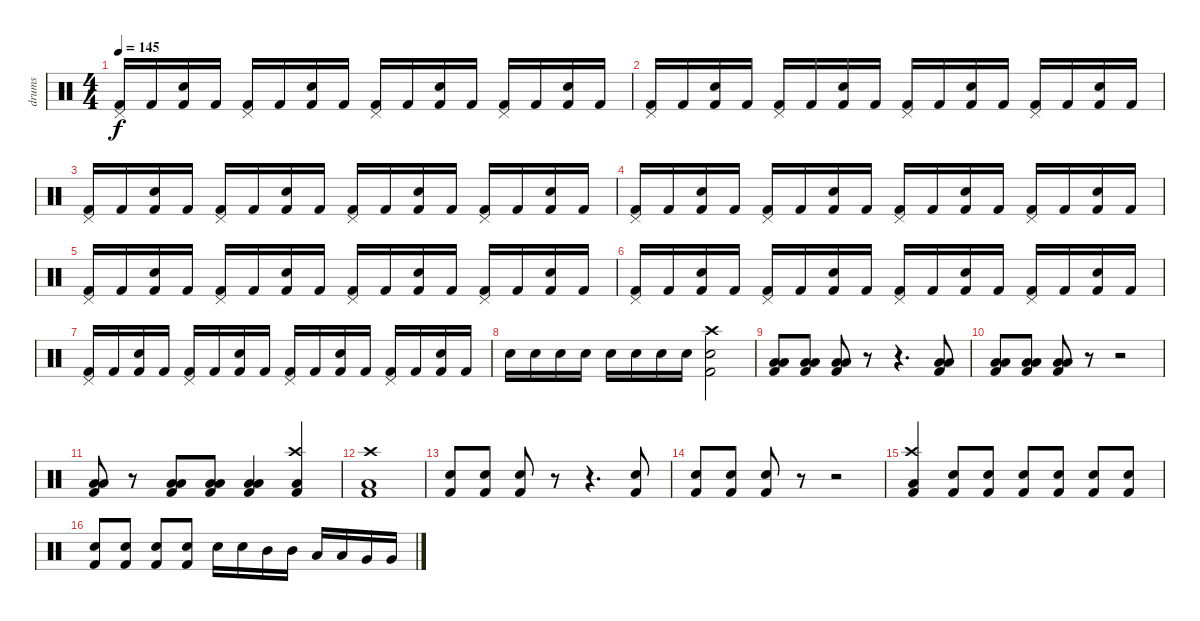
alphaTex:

\track ("drums" "drums") {instrument percussion}
\staff {score}
\articulation defaults
\ts (4 4)
\tempo 145
\clef neutral
\ks c
("Pedal Hi-Hat (hit)" "Kick (hit) 2").16{dy f} "Kick (hit) 2".16 ("Electric Snare (hit)" "Kick (hit) 2").16 "Kick (hit) 2".16 ("Pedal Hi-Hat (hit)" "Kick (hit) 2").16 "Kick (hit) 2".16 ("Electric Snare (hit)" "Kick (hit) 2").16 "Kick (hit) 2".16 ("Pedal Hi-Hat (hit)" "Kick (hit) 2").16 "Kick (hit) 2".16 ("Electric Snare (hit)" "Kick (hit) 2").16 "Kick (hit) 2".16 ("Pedal Hi-Hat (hit)" "Kick (hit) 2").16 "Kick (hit) 2".16 ("Electric Snare (hit)" "Kick (hit) 2").16 "Kick (hit) 2".16 |
("Pedal Hi-Hat (hit)" "Kick (hit) 2").16 "Kick (hit) 2".16 ("Electric Snare (hit)" "Kick (hit) 2").16 "Kick (hit) 2".16 ("Pedal Hi-Hat (hit)" "Kick (hit) 2").16 "Kick (hit) 2".16 ("Electric Snare (hit)" "Kick (hit) 2").16 "Kick (hit) 2".16 ("Pedal Hi-Hat (hit)" "Kick (hit) 2").16 "Kick (hit) 2".16 ("Electric Snare (hit)" "Kick (hit) 2").16 "Kick (hit) 2".16 ("Pedal Hi-Hat (hit)" "Kick (hit) 2").16 "Kick (hit) 2".16 ("Electric Snare (hit)" "Kick (hit) 2").16 "Kick (hit) 2".16 |
("Pedal Hi-Hat (hit)" "Kick (hit) 2").16 "Kick (hit) 2".16 ("Electric Snare (hit)" "Kick (hit) 2").16 "Kick (hit) 2".16 ("Pedal Hi-Hat (hit)" "Kick (hit) 2").16 "Kick (hit) 2".16 ("Electric Snare (hit)" "Kick (hit) 2").16 "Kick (hit) 2".16 ("Pedal Hi-Hat (hit)" "Kick (hit) 2").16 "Kick (hit) 2".16 ("Electric Snare (hit)" "Kick (hit) 2").16 "Kick (hit) 2".16 ("Pedal Hi-Hat (hit)" "Kick (hit) 2").16 "Kick (hit) 2".16 ("Electric Snare (hit)" "Kick (hit) 2").16 "Kick (hit) 2".16 |
("Pedal Hi-Hat (hit)" "Kick (hit) 2").16 "Kick (hit) 2".16 ("Electric Snare (hit)" "Kick (hit) 2").16 "Kick (hit) 2".16 ("Pedal Hi-Hat (hit)" "Kick (hit) 2").16 "Kick (hit) 2".16 ("Electric Snare (hit)" "Kick (hit) 2").16 "Kick (hit) 2".16 ("Pedal Hi-Hat (hit)" "Kick (hit) 2").16 "Kick (hit) 2".16 ("Electric Snare (hit)" "Kick (hit) 2").16 "Kick (hit) 2".16 ("Pedal Hi-Hat (hit)" "Kick (hit) 2").16 "Kick (hit) 2".16 ("Electric Snare (hit)" "Kick (hit) 2").16 "Kick (hit) 2".16 |
("Pedal Hi-Hat (hit)" "Kick (hit) 2").16 "Kick (hit) 2".16 ("Electric Snare (hit)" "Kick (hit) 2").16 "Kick (hit) 2".16 ("Pedal Hi-Hat (hit)" "Kick (hit) 2").16 "Kick (hit) 2".16 ("Electric Snare (hit)" "Kick (hit) 2").16 "Kick (hit) 2".16 ("Pedal Hi-Hat (hit)" "Kick (hit) 2").16 "Kick (hit) 2".16 ("Electric Snare (hit)" "Kick (hit) 2").16 "Kick (hit) 2".16 ("Pedal Hi-Hat (hit)" "Kick (hit) 2").16 "Kick (hit) 2".16 ("Electric Snare (hit)" "Kick (hit) 2").16 "Kick (hit) 2".16 |
("Pedal Hi-Hat (hit)" "Kick (hit) 2").16 "Kick (hit) 2".16 ("Electric Snare (hit)" "Kick (hit) 2").16 "Kick (hit) 2".16 ("Pedal Hi-Hat (hit)" "Kick (hit) 2").16 "Kick (hit) 2".16 ("Electric Snare (hit)" "Kick (hit) 2").16 "Kick (hit) 2".16 ("Pedal Hi-Hat (hit)" "Kick (hit) 2").16 "Kick (hit) 2".16 ("Electric Snare (hit)" "Kick (hit) 2").16 "Kick (hit) 2".16 ("Pedal Hi-Hat (hit)" "Kick (hit) 2").16 "Kick (hit) 2".16 ("Electric Snare (hit)" "Kick (hit) 2").16 "Kick (hit) 2".16 |
("Pedal Hi-Hat (hit)" "Kick (hit) 2").16 "Kick (hit) 2".16 ("Electric Snare (hit)" "Kick (hit) 2").16 "Kick (hit) 2".16 ("Pedal Hi-Hat (hit)" "Kick (hit) 2").16 "Kick (hit) 2".16 ("Electric Snare (hit)" "Kick (hit) 2").16 "Kick (hit) 2".16 ("Pedal Hi-Hat (hit)" "Kick (hit) 2").16 "Kick (hit) 2".16 ("Electric Snare (hit)" "Kick (hit) 2").16 "Kick (hit) 2".16 ("Pedal Hi-Hat (hit)" "Kick (hit) 2").16 "Kick (hit) 2".16 ("Electric Snare (hit)" "Kick (hit) 2").16 "Kick (hit) 2".16 |
"Electric Snare (hit)".16 "Electric Snare (hit)".16 "Electric Snare (hit)".16 "Electric Snare (hit)".16 "Electric Snare (hit)".16 "Electric Snare (hit)".16 "Electric Snare (hit)".16 "Electric Snare (hit)".16 ("Crash high (hit)" "Electric Snare (hit)" "Kick (hit) 2").2 |
("Low Floor Tom (hit)" "Low Floor Tom (hit)" "Kick (hit) 2").8{volume 16} ("Low Floor Tom (hit)" "Low Floor Tom (hit)" "Kick (hit) 2").8 ("Low Floor Tom (hit)" "Low Floor Tom (hit)" "Kick (hit) 2").8 r.8 r.4{d} ("Low Floor Tom (hit)" "Low Floor Tom (hit)" "Kick (hit) 2").8 |
("Low Floor Tom (hit)" "Low Floor Tom (hit)" "Kick (hit) 2").8 ("Low Floor Tom (hit)" "Low Floor Tom (hit)" "Kick (hit) 2").8 ("Low Floor Tom (hit)" "Low Floor Tom (hit)" "Kick (hit) 2").8 r.8 r.2 |
("Low Floor Tom (hit)" "Low Floor Tom (hit)" "Kick (hit) 2").8 r.8 ("Low Floor Tom (hit)" "Low Floor Tom (hit)" "Kick (hit) 2").8 ("Low Floor Tom (hit)" "Low Floor Tom (hit)" "Kick (hit) 2").8 ("Low Floor Tom (hit)" "Low Floor Tom (hit)" "Kick (hit) 2").4 ("Crash high (hit)" "Low Floor Tom (hit)" "Kick (hit) 2").4 |
("Crash high (hit)" "Low Floor Tom (hit)" "Kick (hit) 2").1 |
("Electric Snare (hit)" "Kick (hit) 2").8 ("Electric Snare (hit)" "Kick (hit) 2").8 ("Electric Snare (hit)" "Kick (hit) 2").8 r.8 r.4{d} ("Electric Snare (hit)" "Kick (hit) 2").8 |
("Electric Snare (hit)" "Kick (hit) 2").8 ("Electric Snare (hit)" "Kick (hit) 2").8 ("Electric Snare (hit)" "Kick (hit) 2").8 r.8 r.2 |
("Crash high (hit)" "Low Floor Tom (hit)" "Kick (hit) 2").4 ("Electric Snare (hit)" "Kick (hit) 2").8{volume 10} ("Electric Snare (hit)" "Kick (hit) 2").8{volume 16} ("Electric Snare (hit)" "Kick (hit) 2").8 ("Electric Snare (hit)" "Kick (hit) 2").8 ("Electric Snare (hit)" "Kick (hit) 2").8 ("Electric Snare (hit)" "Kick (hit) 2").8 |
("Electric Snare (hit)" "Kick (hit) 2").8 ("Electric Snare (hit)" "Kick (hit) 2").8 ("Electric Snare (hit)" "Kick (hit) 2").8 ("Electric Snare (hit)" "Kick (hit) 2").8 "Snare (hit) 2".16 "Snare (hit) 2".16 "Mid Tom (hit)".16 "Mid Tom (hit)".16 "Low Tom (hit)".16 "Low Tom (hit)".16 "Very Low Tom (hit)".16 "Very Low Tom (hit)".16
